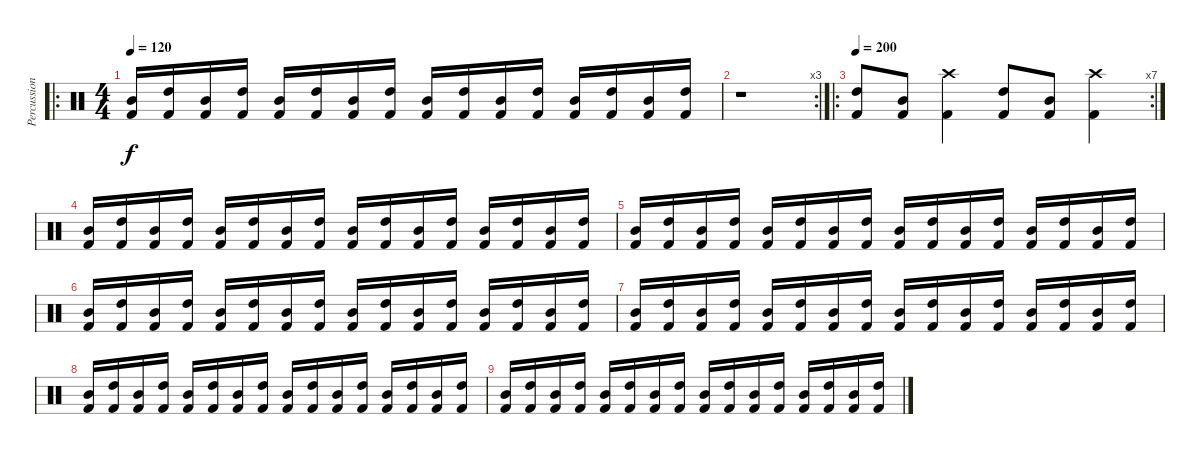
\track ("Percussion" "Percussion") {instrument percussion}
\staff {score}
\articulation defaults
\ro
\ts (4 4)
\tempo 120
\clef neutral
\ks c
("Kick (hit) 2" "Mid Tom (hit)").16{dy f} ("Kick (hit) 2" "High Tom (hit)").16 ("Kick (hit) 2" "Mid Tom (hit)").16 ("Kick (hit) 2" "High Tom (hit)").16 ("Kick (hit) 2" "Mid Tom (hit)").16 ("Kick (hit) 2" "High Tom (hit)").16 ("Kick (hit) 2" "Mid Tom (hit)").16 ("Kick (hit) 2" "High Tom (hit)").16 ("Kick (hit) 2" "Mid Tom (hit)").16 ("Kick (hit) 2" "High Tom (hit)").16 ("Kick (hit) 2" "Mid Tom (hit)").16 ("Kick (hit) 2" "High Tom (hit)").16 ("Kick (hit) 2" "Mid Tom (hit)").16 ("Kick (hit) 2" "High Tom (hit)").16 ("Kick (hit) 2" "Mid Tom (hit)").16 ("Kick (hit) 2" "High Tom (hit)").16 |
\rc 3
r.1 |
\ro
\rc 7
\tempo 200
("Kick (hit) 2" "High Tom (hit)").8 ("Kick (hit) 2" "Mid Tom (hit)").8 ("Kick (hit) 2" "Crash high (hit)").4 ("Kick (hit) 2" "High Tom (hit)").8 ("Kick (hit) 2" "Mid Tom (hit)").8 ("Kick (hit) 2" "Crash high (hit)").4 |
("Kick (hit) 2" "Mid Tom (hit)").16 ("Kick (hit) 2" "High Tom (hit)").16 ("Kick (hit) 2" "Mid Tom (hit)").16 ("Kick (hit) 2" "High Tom (hit)").16 ("Kick (hit) 2" "Mid Tom (hit)").16 ("Kick (hit) 2" "High Tom (hit)").16 ("Kick (hit) 2" "Mid Tom (hit)").16 ("Kick (hit) 2" "High Tom (hit)").16 ("Kick (hit) 2" "Mid Tom (hit)").16 ("Kick (hit) 2" "High Tom (hit)").16 ("Kick (hit) 2" "Mid Tom (hit)").16 ("Kick (hit) 2" "High Tom (hit)").16 ("Kick (hit) 2" "Mid Tom (hit)").16 ("Kick (hit) 2" "High Tom (hit)").16 ("Kick (hit) 2" "Mid Tom (hit)").16 ("Kick (hit) 2" "High Tom (hit)").16 |
("Kick (hit) 2" "Mid Tom (hit)").16 ("Kick (hit) 2" "High Tom (hit)").16 ("Kick (hit) 2" "Mid Tom (hit)").16 ("Kick (hit) 2" "High Tom (hit)").16 ("Kick (hit) 2" "Mid Tom (hit)").16 ("Kick (hit) 2" "High Tom (hit)").16 ("Kick (hit) 2" "Mid Tom (hit)").16 ("Kick (hit) 2" "High Tom (hit)").16 ("Kick (hit) 2" "Mid Tom (hit)").16 ("Kick (hit) 2" "High Tom (hit)").16 ("Kick (hit) 2" "Mid Tom (hit)").16 ("Kick (hit) 2" "High Tom (hit)").16 ("Kick (hit) 2" "Mid Tom (hit)").16 ("Kick (hit) 2" "High Tom (hit)").16 ("Kick (hit) 2" "Mid Tom (hit)").16 ("Kick (hit) 2" "High Tom (hit)").16 |
("Kick (hit) 2" "Mid Tom (hit)").16 ("Kick (hit) 2" "High Tom (hit)").16 ("Kick (hit) 2" "Mid Tom (hit)").16 ("Kick (hit) 2" "High Tom (hit)").16 ("Kick (hit) 2" "Mid Tom (hit)").16 ("Kick (hit) 2" "High Tom (hit)").16 ("Kick (hit) 2" "Mid Tom (hit)").16 ("Kick (hit) 2" "High Tom (hit)").16 ("Kick (hit) 2" "Mid Tom (hit)").16 ("Kick (hit) 2" "High Tom (hit)").16 ("Kick (hit) 2" "Mid Tom (hit)").16 ("Kick (hit) 2" "High Tom (hit)").16 ("Kick (hit) 2" "Mid Tom (hit)").16 ("Kick (hit) 2" "High Tom (hit)").16 ("Kick (hit) 2" "Mid Tom (hit)").16 ("Kick (hit) 2" "High Tom (hit)").16 |
("Kick (hit) 2" "Mid Tom (hit)").16 ("Kick (hit) 2" "High Tom (hit)").16 ("Kick (hit) 2" "Mid Tom (hit)").16 ("Kick (hit) 2" "High Tom (hit)").16 ("Kick (hit) 2" "Mid Tom (hit)").16 ("Kick (hit) 2" "High Tom (hit)").16 ("Kick (hit) 2" "Mid Tom (hit)").16 ("Kick (hit) 2" "High Tom (hit)").16 ("Kick (hit) 2" "Mid Tom (hit)").16 ("Kick (hit) 2" "High Tom (hit)").16 ("Kick (hit) 2" "Mid Tom (hit)").16 ("Kick (hit) 2" "High Tom (hit)").16 ("Kick (hit) 2" "Mid Tom (hit)").16 ("Kick (hit) 2" "High Tom (hit)").16 ("Kick (hit) 2" "Mid Tom (hit)").16 ("Kick (hit) 2" "High Tom (hit)").16 |
("Kick (hit) 2" "Mid Tom (hit)").16 ("Kick (hit) 2" "High Tom (hit)").16 ("Kick (hit) 2" "Mid Tom (hit)").16 ("Kick (hit) 2" "High Tom (hit)").16 ("Kick (hit) 2" "Mid Tom (hit)").16 ("Kick (hit) 2" "High Tom (hit)").16 ("Kick (hit) 2" "Mid Tom (hit)").16 ("Kick (hit) 2" "High Tom (hit)").16 ("Kick (hit) 2" "Mid Tom (hit)").16 ("Kick (hit) 2" "High Tom (hit)").16 ("Kick (hit) 2" "Mid Tom (hit)").16 ("Kick (hit) 2" "High Tom (hit)").16 ("Kick (hit) 2" "Mid Tom (hit)").16 ("Kick (hit) 2" "High Tom (hit)").16 ("Kick (hit) 2" "Mid Tom (hit)").16 ("Kick (hit) 2" "High Tom (hit)").16 |
("Kick (hit) 2" "Mid Tom (hit)").16 ("Kick (hit) 2" "High Tom (hit)").16 ("Kick (hit) 2" "Mid Tom (hit)").16 ("Kick (hit) 2" "High Tom (hit)").16 ("Kick (hit) 2" "Mid Tom (hit)").16 ("Kick (hit) 2" "High Tom (hit)").16 ("Kick (hit) 2" "Mid Tom (hit)").16 ("Kick (hit) 2" "High Tom (hit)").16 ("Kick (hit) 2" "Mid Tom (hit)").16 ("Kick (hit) 2" "High Tom (hit)").16 ("Kick (hit) 2" "Mid Tom (hit)").16 ("Kick (hit) 2" "High Tom (hit)").16 ("Kick (hit) 2" "Mid Tom (hit)").16 ("Kick (hit) 2" "High Tom (hit)").16 ("Kick (hit) 2" "Mid Tom (hit)").16 ("Kick (hit) 2" "High Tom (hit)").16
